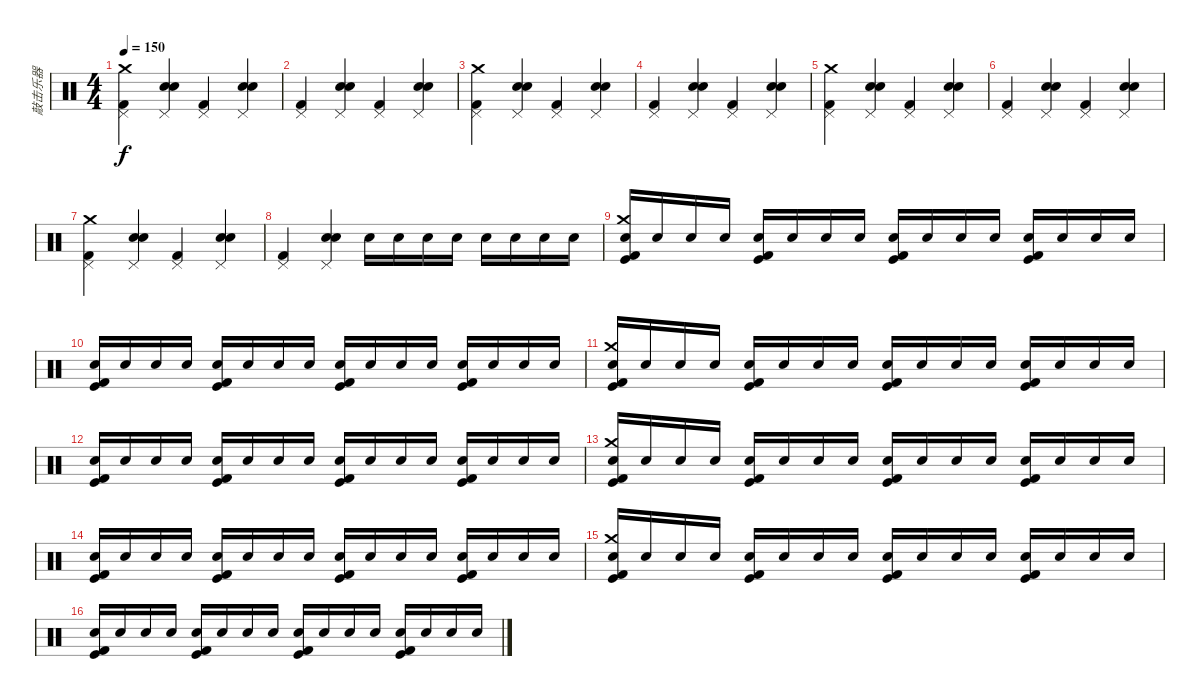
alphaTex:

\track ("敲击乐器" "敲击乐器") {instrument percussion}
\staff {score}
\articulation defaults
\ts (4 4)
\tempo 150
\clef neutral
\ks c
("Kick (hit) 2" "Pedal Hi-Hat (hit)" "Crash medium (hit)").4{dy f} ("Snare (hit) 2" "Electric Snare (hit)" "Pedal Hi-Hat (hit)").4 ("Kick (hit) 2" "Pedal Hi-Hat (hit)").4 ("Snare (hit) 2" "Electric Snare (hit)" "Pedal Hi-Hat (hit)").4 |
("Kick (hit) 2" "Pedal Hi-Hat (hit)").4 ("Snare (hit) 2" "Electric Snare (hit)" "Pedal Hi-Hat (hit)").4 ("Kick (hit) 2" "Pedal Hi-Hat (hit)").4 ("Snare (hit) 2" "Electric Snare (hit)" "Pedal Hi-Hat (hit)").4 |
("Kick (hit) 2" "Pedal Hi-Hat (hit)" "Crash medium (hit)").4 ("Snare (hit) 2" "Electric Snare (hit)" "Pedal Hi-Hat (hit)").4 ("Kick (hit) 2" "Pedal Hi-Hat (hit)").4 ("Snare (hit) 2" "Electric Snare (hit)" "Pedal Hi-Hat (hit)").4 |
("Kick (hit) 2" "Pedal Hi-Hat (hit)").4 ("Snare (hit) 2" "Electric Snare (hit)" "Pedal Hi-Hat (hit)").4 ("Kick (hit) 2" "Pedal Hi-Hat (hit)").4 ("Snare (hit) 2" "Electric Snare (hit)" "Pedal Hi-Hat (hit)").4 |
("Kick (hit) 2" "Pedal Hi-Hat (hit)" "Crash medium (hit)").4 ("Snare (hit) 2" "Electric Snare (hit)" "Pedal Hi-Hat (hit)").4 ("Kick (hit) 2" "Pedal Hi-Hat (hit)").4 ("Snare (hit) 2" "Electric Snare (hit)" "Pedal Hi-Hat (hit)").4 |
("Kick (hit) 2" "Pedal Hi-Hat (hit)").4 ("Snare (hit) 2" "Electric Snare (hit)" "Pedal Hi-Hat (hit)").4 ("Kick (hit) 2" "Pedal Hi-Hat (hit)").4 ("Snare (hit) 2" "Electric Snare (hit)" "Pedal Hi-Hat (hit)").4 |
("Kick (hit) 2" "Pedal Hi-Hat (hit)" "Crash medium (hit)").4 ("Snare (hit) 2" "Electric Snare (hit)" "Pedal Hi-Hat (hit)").4 ("Kick (hit) 2" "Pedal Hi-Hat (hit)").4 ("Snare (hit) 2" "Electric Snare (hit)" "Pedal Hi-Hat (hit)").4 |
("Kick (hit) 2" "Pedal Hi-Hat (hit)").4 ("Snare (hit) 2" "Electric Snare (hit)" "Pedal Hi-Hat (hit)").4 "Electric Snare (hit)".16 "Electric Snare (hit)".16 "Electric Snare (hit)".16 "Electric Snare (hit)".16 "Electric Snare (hit)".16 "Electric Snare (hit)".16 "Electric Snare (hit)".16 "Electric Snare (hit)".16 |
("Snare (hit) 2" "Kick (hit) 2" "Crash medium (hit)" "Kick (hit)").16 "Snare (hit) 2".16 "Snare (hit) 2".16 "Snare (hit) 2".16 ("Snare (hit) 2" "Kick (hit) 2" "Kick (hit)").16 "Snare (hit) 2".16 "Snare (hit) 2".16 "Snare (hit) 2".16 ("Snare (hit) 2" "Kick (hit) 2" "Kick (hit)").16 "Snare (hit) 2".16 "Snare (hit) 2".16 "Snare (hit) 2".16 ("Snare (hit) 2" "Kick (hit) 2" "Kick (hit)").16 "Snare (hit) 2".16 "Snare (hit) 2".16 "Snare (hit) 2".16 |
("Snare (hit) 2" "Kick (hit) 2" "Kick (hit)").16 "Snare (hit) 2".16 "Snare (hit) 2".16 "Snare (hit) 2".16 ("Snare (hit) 2" "Kick (hit) 2" "Kick (hit)").16 "Snare (hit) 2".16 "Snare (hit) 2".16 "Snare (hit) 2".16 ("Snare (hit) 2" "Kick (hit) 2" "Kick (hit)").16 "Snare (hit) 2".16 "Snare (hit) 2".16 "Snare (hit) 2".16 ("Snare (hit) 2" "Kick (hit) 2" "Kick (hit)").16 "Snare (hit) 2".16 "Snare (hit) 2".16 "Snare (hit) 2".16 |
("Snare (hit) 2" "Kick (hit) 2" "Crash medium (hit)" "Kick (hit)").16 "Snare (hit) 2".16 "Snare (hit) 2".16 "Snare (hit) 2".16 ("Snare (hit) 2" "Kick (hit) 2" "Kick (hit)").16 "Snare (hit) 2".16 "Snare (hit) 2".16 "Snare (hit) 2".16 ("Snare (hit) 2" "Kick (hit) 2" "Kick (hit)").16 "Snare (hit) 2".16 "Snare (hit) 2".16 "Snare (hit) 2".16 ("Snare (hit) 2" "Kick (hit) 2" "Kick (hit)").16 "Snare (hit) 2".16 "Snare (hit) 2".16 "Snare (hit) 2".16 |
("Snare (hit) 2" "Kick (hit) 2" "Kick (hit)").16 "Snare (hit) 2".16 "Snare (hit) 2".16 "Snare (hit) 2".16 ("Snare (hit) 2" "Kick (hit) 2" "Kick (hit)").16 "Snare (hit) 2".16 "Snare (hit) 2".16 "Snare (hit) 2".16 ("Snare (hit) 2" "Kick (hit) 2" "Kick (hit)").16 "Snare (hit) 2".16 "Snare (hit) 2".16 "Snare (hit) 2".16 ("Snare (hit) 2" "Kick (hit) 2" "Kick (hit)").16 "Snare (hit) 2".16 "Snare (hit) 2".16 "Snare (hit) 2".16 |
("Snare (hit) 2" "Kick (hit) 2" "Crash medium (hit)" "Kick (hit)").16 "Snare (hit) 2".16 "Snare (hit) 2".16 "Snare (hit) 2".16 ("Snare (hit) 2" "Kick (hit) 2" "Kick (hit)").16 "Snare (hit) 2".16 "Snare (hit) 2".16 "Snare (hit) 2".16 ("Snare (hit) 2" "Kick (hit) 2" "Kick (hit)").16 "Snare (hit) 2".16 "Snare (hit) 2".16 "Snare (hit) 2".16 ("Snare (hit) 2" "Kick (hit) 2" "Kick (hit)").16 "Snare (hit) 2".16 "Snare (hit) 2".16 "Snare (hit) 2".16 |
("Snare (hit) 2" "Kick (hit) 2" "Kick (hit)").16 "Snare (hit) 2".16 "Snare (hit) 2".16 "Snare (hit) 2".16 ("Snare (hit) 2" "Kick (hit) 2" "Kick (hit)").16 "Snare (hit) 2".16 "Snare (hit) 2".16 "Snare (hit) 2".16 ("Snare (hit) 2" "Kick (hit) 2" "Kick (hit)").16 "Snare (hit) 2".16 "Snare (hit) 2".16 "Snare (hit) 2".16 ("Snare (hit) 2" "Kick (hit) 2" "Kick (hit)").16 "Snare (hit) 2".16 "Snare (hit) 2".16 "Snare (hit) 2".16 |
("Snare (hit) 2" "Kick (hit) 2" "Crash medium (hit)" "Kick (hit)").16 "Snare (hit) 2".16 "Snare (hit) 2".16 "Snare (hit) 2".16 ("Snare (hit) 2" "Kick (hit) 2" "Kick (hit)").16 "Snare (hit) 2".16 "Snare (hit) 2".16 "Snare (hit) 2".16 ("Snare (hit) 2" "Kick (hit) 2" "Kick (hit)").16 "Snare (hit) 2".16 "Snare (hit) 2".16 "Snare (hit) 2".16 ("Snare (hit) 2" "Kick (hit) 2" "Kick (hit)").16 "Snare (hit) 2".16 "Snare (hit) 2".16 "Snare (hit) 2".16 |
("Snare (hit) 2" "Kick (hit) 2" "Kick (hit)").16 "Snare (hit) 2".16 "Snare (hit) 2".16 "Snare (hit) 2".16 ("Snare (hit) 2" "Kick (hit) 2" "Kick (hit)").16 "Snare (hit) 2".16 "Snare (hit) 2".16 "Snare (hit) 2".16 ("Snare (hit) 2" "Kick (hit) 2" "Kick (hit)").16 "Snare (hit) 2".16 "Snare (hit) 2".16 "Snare (hit) 2".16 ("Snare (hit) 2" "Kick (hit) 2" "Kick (hit)").16 "Snare (hit) 2".16 "Snare (hit) 2".16 "Snare (hit) 2".16
